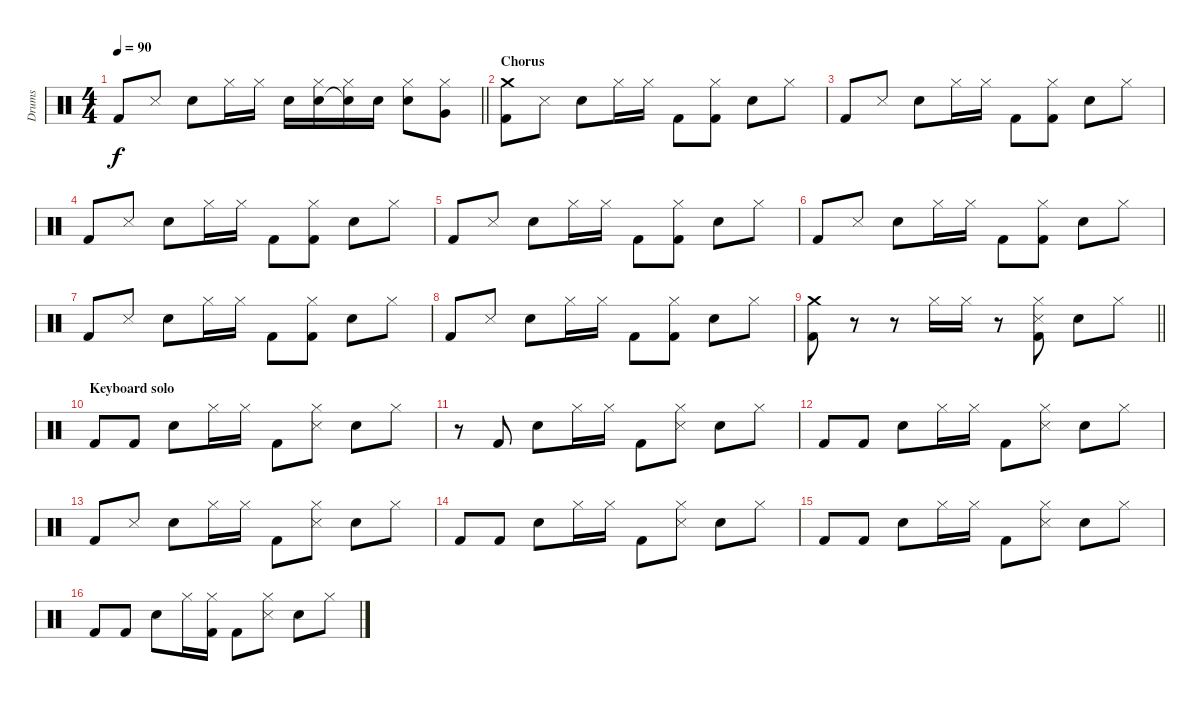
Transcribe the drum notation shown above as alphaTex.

\track ("Drums" "Drums") {instrument percussion}
\staff {score}
\articulation defaults
\ts (4 4)
\tempo 90
\clef neutral
\barLineRight lightlight
\ks c "Kick (hit) 2".8{dy f} "Snare (side stick) 3".8 "Snare (hit) 2".8 "Hi-Hat (closed)".16 "Hi-Hat (closed)".16 "Snare (hit) 2".16
("Hi-Hat (closed)" "Snare (hit) 2").16 ("Hi-Hat (closed)" "Snare (hit) 2"{t}).16 "Snare (hit) 2".16 ("Hi-Hat (closed)" "Snare (hit) 2").8 ("Hi-Hat (closed)" "Very Low Tom (hit)").8 |
\section ("" "Chorus")
("Crash medium (hit)" "Kick (hit) 2").8 "Snare (side stick) 3".8 "Snare (hit) 2".8 "Hi-Hat (closed)".16 "Hi-Hat (closed)".16 "Kick (hit) 2".8 ("Hi-Hat (closed)" "Kick (hit) 2").8 "Snare (hit) 2".8 "Hi-Hat (closed)".8 |
"Kick (hit) 2".8 "Snare (side stick) 3".8 "Snare (hit) 2".8 "Hi-Hat (closed)".16 "Hi-Hat (closed)".16 "Kick (hit) 2".8 ("Hi-Hat (closed)" "Kick (hit) 2").8 "Snare (hit) 2".8 "Hi-Hat (closed)".8 |
"Kick (hit) 2".8 "Snare (side stick) 3".8 "Snare (hit) 2".8 "Hi-Hat (closed)".16 "Hi-Hat (closed)".16 "Kick (hit) 2".8 ("Hi-Hat (closed)" "Kick (hit) 2").8 "Snare (hit) 2".8 "Hi-Hat (closed)".8 |
"Kick (hit) 2".8 "Snare (side stick) 3".8 "Snare (hit) 2".8 "Hi-Hat (closed)".16 "Hi-Hat (closed)".16 "Kick (hit) 2".8 ("Hi-Hat (closed)" "Kick (hit) 2").8 "Snare (hit) 2".8 "Hi-Hat (closed)".8 |
"Kick (hit) 2".8 "Snare (side stick) 3".8 "Snare (hit) 2".8 "Hi-Hat (closed)".16 "Hi-Hat (closed)".16 "Kick (hit) 2".8 ("Hi-Hat (closed)" "Kick (hit) 2").8 "Snare (hit) 2".8 "Hi-Hat (closed)".8 |
"Kick (hit) 2".8 "Snare (side stick) 3".8 "Snare (hit) 2".8 "Hi-Hat (closed)".16 "Hi-Hat (closed)".16 "Kick (hit) 2".8 ("Hi-Hat (closed)" "Kick (hit) 2").8 "Snare (hit) 2".8 "Hi-Hat (closed)".8 |
"Kick (hit) 2".8 "Snare (side stick) 3".8 "Snare (hit) 2".8 "Hi-Hat (closed)".16 "Hi-Hat (closed)".16 "Kick (hit) 2".8 ("Hi-Hat (closed)" "Kick (hit) 2").8 "Snare (hit) 2".8 "Hi-Hat (closed)".8 |
\barLineRight lightlight
("Crash medium (hit)" "Kick (hit) 2").8 r.8 r.8 "Hi-Hat (closed)".16 "Hi-Hat (closed)".16 r.8 ("Hi-Hat (closed)" "Snare (side stick) 3" "Kick (hit) 2").8 "Snare (hit) 2".8 "Hi-Hat (closed)".8 |
\section ("" "Keyboard solo")
"Kick (hit) 2".8 "Kick (hit) 2".8 "Snare (hit) 2".8 "Hi-Hat (closed)".16 "Hi-Hat (closed)".16 "Kick (hit) 2".8 ("Hi-Hat (closed)" "Snare (side stick) 3").8 "Snare (hit) 2".8 "Hi-Hat (closed)".8 |
r.8 "Kick (hit) 2".8 "Snare (hit) 2".8 "Hi-Hat (closed)".16 "Hi-Hat (closed)".16 "Kick (hit) 2".8 ("Hi-Hat (closed)" "Snare (side stick) 3").8 "Snare (hit) 2".8 "Hi-Hat (closed)".8 |
"Kick (hit) 2".8 "Kick (hit) 2".8 "Snare (hit) 2".8 "Hi-Hat (closed)".16 "Hi-Hat (closed)".16 "Kick (hit) 2".8 ("Hi-Hat (closed)" "Snare (side stick) 3").8 "Snare (hit) 2".8 "Hi-Hat (closed)".8 |
"Kick (hit) 2".8 "Snare (side stick) 3".8 "Snare (hit) 2".8 "Hi-Hat (closed)".16 "Hi-Hat (closed)".16 "Kick (hit) 2".8 ("Hi-Hat (closed)" "Snare (side stick) 3").8 "Snare (hit) 2".8 "Hi-Hat (closed)".8 |
"Kick (hit) 2".8 "Kick (hit) 2".8 "Snare (hit) 2".8 "Hi-Hat (closed)".16 "Hi-Hat (closed)".16 "Kick (hit) 2".8 ("Hi-Hat (closed)" "Snare (side stick) 3").8 "Snare (hit) 2".8 "Hi-Hat (closed)".8 |
"Kick (hit) 2".8 "Kick (hit) 2".8 "Snare (hit) 2".8 "Hi-Hat (closed)".16 "Hi-Hat (closed)".16 "Kick (hit) 2".8 ("Hi-Hat (closed)" "Snare (side stick) 3").8 "Snare (hit) 2".8 "Hi-Hat (closed)".8 |
"Kick (hit) 2".8 "Kick (hit) 2".8 "Snare (hit) 2".8 "Hi-Hat (closed)".16 ("Hi-Hat (closed)" "Kick (hit) 2").16 "Kick (hit) 2".8 ("Hi-Hat (closed)" "Snare (side stick) 3").8 "Snare (hit) 2".8 "Hi-Hat (closed)".8
